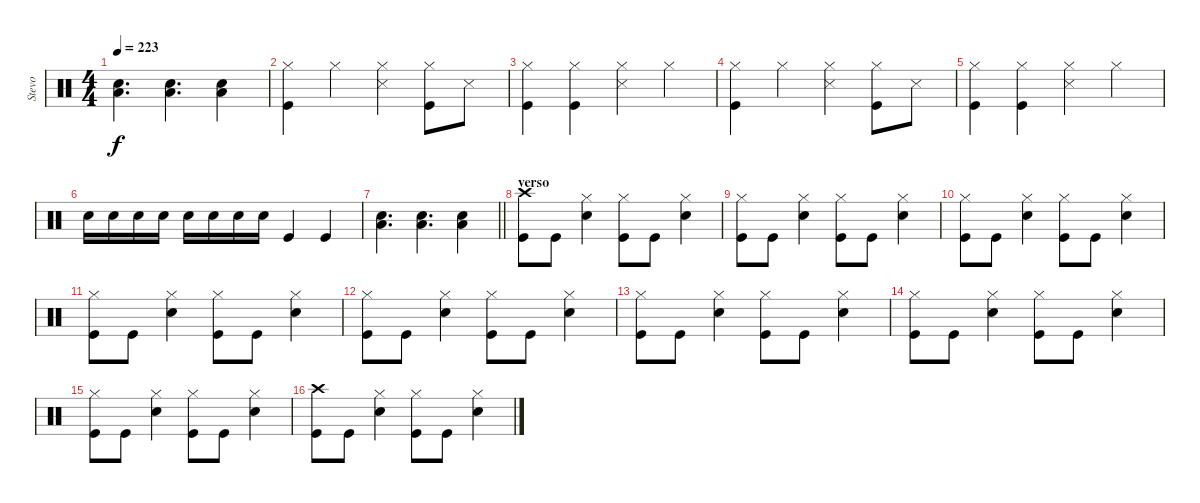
\track ("Stevo" "Stevo") {instrument percussion}
\staff {score}
\articulation defaults
\ts (4 4)
\tempo 223
\clef neutral
\ks c
("Electric Snare (hit)" "Low Floor Tom (hit)").4{d dy f} ("Electric Snare (hit)" "Low Floor Tom (hit)").4{d} ("Electric Snare (hit)" "Low Floor Tom (hit)").4 |
("Hi-Hat (closed)" "Kick (hit)").4 "Hi-Hat (closed)".4 ("Hi-Hat (closed)" "Snare (side stick) 3").4 ("Hi-Hat (closed)" "Kick (hit)").8 "Snare (side stick) 3".8 |
("Hi-Hat (closed)" "Kick (hit)").4 ("Hi-Hat (closed)" "Kick (hit)").4 ("Hi-Hat (closed)" "Snare (side stick) 3").4 "Hi-Hat (closed)".4 |
("Hi-Hat (closed)" "Kick (hit)").4 "Hi-Hat (closed)".4 ("Hi-Hat (closed)" "Snare (side stick) 3").4 ("Hi-Hat (closed)" "Kick (hit)").8 "Snare (side stick) 3".8 |
("Hi-Hat (closed)" "Kick (hit)").4 ("Hi-Hat (closed)" "Kick (hit)").4 ("Hi-Hat (closed)" "Snare (side stick) 3").4 "Hi-Hat (closed)".4 |
"Electric Snare (hit)".16 "Electric Snare (hit)".16 "Electric Snare (hit)".16 "Electric Snare (hit)".16 "Electric Snare (hit)".16 "Electric Snare (hit)".16 "Electric Snare (hit)".16 "Electric Snare (hit)".16 "Kick (hit)".4 "Kick (hit)".4 |
\barLineRight lightlight
("Electric Snare (hit)" "Low Floor Tom (hit)").4{d} ("Electric Snare (hit)" "Low Floor Tom (hit)").4{d} ("Electric Snare (hit)" "Low Floor Tom (hit)").4 |
\section ("" "verso")
("Crash high (hit)" "Kick (hit)").8 "Kick (hit)".8 ("Hi-Hat (closed)" "Electric Snare (hit)").4 ("Hi-Hat (closed)" "Kick (hit)").8 "Kick (hit)".8 ("Hi-Hat (closed)" "Electric Snare (hit)").4 |
("Hi-Hat (closed)" "Kick (hit)").8 "Kick (hit)".8 ("Hi-Hat (closed)" "Electric Snare (hit)").4 ("Hi-Hat (closed)" "Kick (hit)").8 "Kick (hit)".8 ("Hi-Hat (closed)" "Electric Snare (hit)").4 |
("Hi-Hat (closed)" "Kick (hit)").8 "Kick (hit)".8 ("Hi-Hat (closed)" "Electric Snare (hit)").4 ("Hi-Hat (closed)" "Kick (hit)").8 "Kick (hit)".8 ("Hi-Hat (closed)" "Electric Snare (hit)").4 |
("Hi-Hat (closed)" "Kick (hit)").8 "Kick (hit)".8 ("Hi-Hat (closed)" "Electric Snare (hit)").4 ("Hi-Hat (closed)" "Kick (hit)").8 "Kick (hit)".8 ("Hi-Hat (closed)" "Electric Snare (hit)").4 |
("Hi-Hat (closed)" "Kick (hit)").8 "Kick (hit)".8 ("Hi-Hat (closed)" "Electric Snare (hit)").4 ("Hi-Hat (closed)" "Kick (hit)").8 "Kick (hit)".8 ("Hi-Hat (closed)" "Electric Snare (hit)").4 |
("Hi-Hat (closed)" "Kick (hit)").8 "Kick (hit)".8 ("Hi-Hat (closed)" "Electric Snare (hit)").4 ("Hi-Hat (closed)" "Kick (hit)").8 "Kick (hit)".8 ("Hi-Hat (closed)" "Electric Snare (hit)").4 |
("Hi-Hat (closed)" "Kick (hit)").8 "Kick (hit)".8 ("Hi-Hat (closed)" "Electric Snare (hit)").4 ("Hi-Hat (closed)" "Kick (hit)").8 "Kick (hit)".8 ("Hi-Hat (closed)" "Electric Snare (hit)").4 |
("Hi-Hat (closed)" "Kick (hit)").8 "Kick (hit)".8 ("Hi-Hat (closed)" "Electric Snare (hit)").4 ("Hi-Hat (closed)" "Kick (hit)").8 "Kick (hit)".8 ("Hi-Hat (closed)" "Electric Snare (hit)").4 |
("Crash high (hit)" "Kick (hit)").8 "Kick (hit)".8 ("Hi-Hat (closed)" "Electric Snare (hit)").4 ("Hi-Hat (closed)" "Kick (hit)").8 "Kick (hit)".8 ("Hi-Hat (closed)" "Electric Snare (hit)").4
